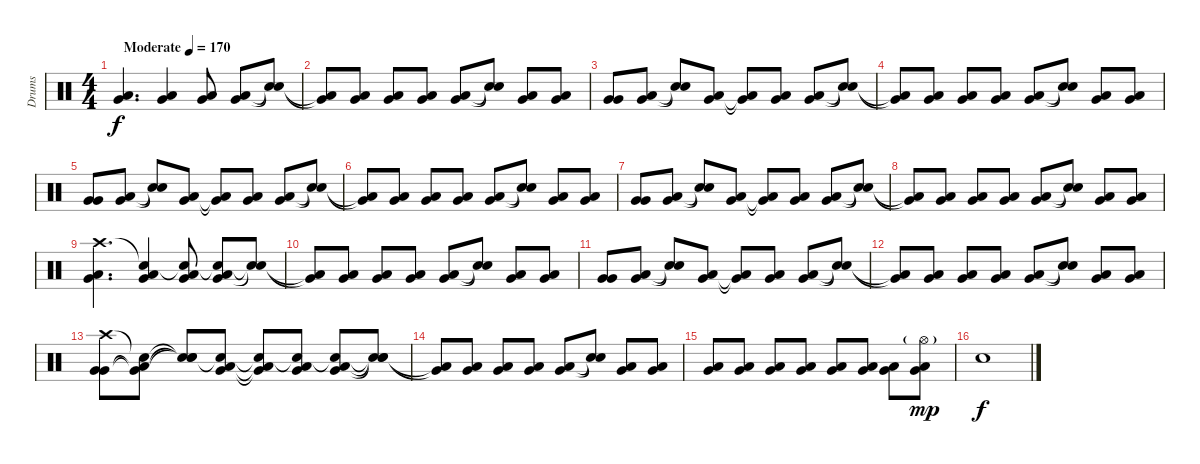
\track ("Drums" "Drums") {instrument percussion}
\staff {score}
\articulation defaults
\ts (4 4)
\tempo (170 "Moderate")
\clef neutral
\ks c
("Very Low Tom (hit)" "Low Floor Tom (hit)").4{d dy f} ("Very Low Tom (hit)" "Low Floor Tom (hit)").4 ("Very Low Tom (hit)" "Low Floor Tom (hit)").8 ("Very Low Tom (hit)" "Low Floor Tom (hit)").8 ("Snare (hit)"{t} "Snare (hit)"{t}).8 |
("Very Low Tom (hit)"{t} "Low Floor Tom (hit)"{t}).8 ("Very Low Tom (hit)" "Low Floor Tom (hit)").8 ("Very Low Tom (hit)" "Low Floor Tom (hit)").8 ("Very Low Tom (hit)" "Low Floor Tom (hit)").8 ("Very Low Tom (hit)" "Low Floor Tom (hit)").8 ("Snare (hit)"{t} "Snare (hit)"{t}).8 ("Very Low Tom (hit)" "Low Floor Tom (hit)").8 ("Very Low Tom (hit)" "Low Floor Tom (hit)").8 |
("Very Low Tom (hit)" "Very Low Tom (hit)").8 ("Very Low Tom (hit)" "Low Floor Tom (hit)").8 ("Snare (hit)"{t} "Snare (hit)"{t}).8 ("Very Low Tom (hit)" "Low Floor Tom (hit)").8 ("Very Low Tom (hit)"{t} "Low Floor Tom (hit)"{t}).8 ("Very Low Tom (hit)" "Low Floor Tom (hit)").8 ("Very Low Tom (hit)" "Low Floor Tom (hit)").8 ("Snare (hit)"{t} "Snare (hit)"{t}).8 |
("Very Low Tom (hit)"{t} "Low Floor Tom (hit)"{t}).8 ("Very Low Tom (hit)" "Low Floor Tom (hit)").8 ("Very Low Tom (hit)" "Low Floor Tom (hit)").8 ("Very Low Tom (hit)" "Low Floor Tom (hit)").8 ("Very Low Tom (hit)" "Low Floor Tom (hit)").8 ("Snare (hit)"{t} "Snare (hit)"{t}).8 ("Very Low Tom (hit)" "Low Floor Tom (hit)").8 ("Very Low Tom (hit)" "Low Floor Tom (hit)").8 |
("Very Low Tom (hit)" "Very Low Tom (hit)").8 ("Very Low Tom (hit)" "Low Floor Tom (hit)").8 ("Snare (hit)"{t} "Snare (hit)"{t}).8 ("Very Low Tom (hit)" "Low Floor Tom (hit)").8 ("Very Low Tom (hit)"{t} "Low Floor Tom (hit)"{t}).8 ("Very Low Tom (hit)" "Low Floor Tom (hit)").8 ("Very Low Tom (hit)" "Low Floor Tom (hit)").8 ("Snare (hit)"{t} "Snare (hit)"{t}).8 |
("Very Low Tom (hit)"{t} "Low Floor Tom (hit)"{t}).8 ("Very Low Tom (hit)" "Low Floor Tom (hit)").8 ("Very Low Tom (hit)" "Low Floor Tom (hit)").8 ("Very Low Tom (hit)" "Low Floor Tom (hit)").8 ("Very Low Tom (hit)" "Low Floor Tom (hit)").8 ("Snare (hit)"{t} "Snare (hit)"{t}).8 ("Very Low Tom (hit)" "Low Floor Tom (hit)").8 ("Very Low Tom (hit)" "Low Floor Tom (hit)").8 |
("Very Low Tom (hit)" "Very Low Tom (hit)").8 ("Very Low Tom (hit)" "Low Floor Tom (hit)").8 ("Snare (hit)"{t} "Snare (hit)"{t}).8 ("Very Low Tom (hit)" "Low Floor Tom (hit)").8 ("Very Low Tom (hit)"{t} "Low Floor Tom (hit)"{t}).8 ("Very Low Tom (hit)" "Low Floor Tom (hit)").8 ("Very Low Tom (hit)" "Low Floor Tom (hit)").8 ("Snare (hit)"{t} "Snare (hit)"{t}).8 |
("Very Low Tom (hit)"{t} "Low Floor Tom (hit)"{t}).8 ("Very Low Tom (hit)" "Low Floor Tom (hit)").8 ("Very Low Tom (hit)" "Low Floor Tom (hit)").8 ("Very Low Tom (hit)" "Low Floor Tom (hit)").8 ("Very Low Tom (hit)" "Low Floor Tom (hit)").8 ("Snare (hit)"{t} "Snare (hit)"{t}).8 ("Very Low Tom (hit)" "Low Floor Tom (hit)").8 ("Very Low Tom (hit)" "Low Floor Tom (hit)").8 |
("Crash high (hit)" "Very Low Tom (hit)" "Low Floor Tom (hit)").4{d} ("Snare (hit)"{t} "Very Low Tom (hit)" "Low Floor Tom (hit)").4 ("Snare (hit)"{t} "Very Low Tom (hit)" "Low Floor Tom (hit)").8 ("Snare (hit)"{t} "Very Low Tom (hit)" "Low Floor Tom (hit)").8 ("Snare (hit)"{t} "Snare (hit)"{t}).8 |
("Very Low Tom (hit)"{t} "Low Floor Tom (hit)"{t}).8 ("Very Low Tom (hit)" "Low Floor Tom (hit)").8 ("Very Low Tom (hit)" "Low Floor Tom (hit)").8 ("Very Low Tom (hit)" "Low Floor Tom (hit)").8 ("Very Low Tom (hit)" "Low Floor Tom (hit)").8 ("Snare (hit)"{t} "Snare (hit)"{t}).8 ("Very Low Tom (hit)" "Low Floor Tom (hit)").8 ("Very Low Tom (hit)" "Low Floor Tom (hit)").8 |
("Very Low Tom (hit)" "Very Low Tom (hit)").8 ("Very Low Tom (hit)" "Low Floor Tom (hit)").8 ("Snare (hit)"{t} "Snare (hit)"{t}).8 ("Very Low Tom (hit)" "Low Floor Tom (hit)").8 ("Very Low Tom (hit)"{t} "Low Floor Tom (hit)"{t}).8 ("Very Low Tom (hit)" "Low Floor Tom (hit)").8 ("Very Low Tom (hit)" "Low Floor Tom (hit)").8 ("Snare (hit)"{t} "Snare (hit)"{t}).8 |
("Very Low Tom (hit)"{t} "Low Floor Tom (hit)"{t}).8 ("Very Low Tom (hit)" "Low Floor Tom (hit)").8 ("Very Low Tom (hit)" "Low Floor Tom (hit)").8 ("Very Low Tom (hit)" "Low Floor Tom (hit)").8 ("Very Low Tom (hit)" "Low Floor Tom (hit)").8 ("Snare (hit)"{t} "Snare (hit)"{t}).8 ("Very Low Tom (hit)" "Low Floor Tom (hit)").8 ("Very Low Tom (hit)" "Low Floor Tom (hit)").8 |
("Crash high (hit)" "Very Low Tom (hit)" "Very Low Tom (hit)").8 ("Snare (hit)"{t} "Very Low Tom (hit)"{t} "Low Floor Tom (hit)"{t}).8 ("Snare (hit)"{t} "Snare (hit)"{t} "Snare (hit)"{t}).8 ("Snare (hit)"{t} "Very Low Tom (hit)" "Low Floor Tom (hit)").8 ("Snare (hit)"{t} "Very Low Tom (hit)"{t} "Low Floor Tom (hit)"{t}).8 ("Snare (hit)"{t} "Very Low Tom (hit)" "Low Floor Tom (hit)").8 ("Snare (hit)"{t} "Very Low Tom (hit)" "Low Floor Tom (hit)").8 ("Snare (hit)"{t} "Snare (hit)"{t} "Snare (hit)"{t}).8 |
("Very Low Tom (hit)"{t} "Low Floor Tom (hit)"{t}).8 ("Very Low Tom (hit)" "Low Floor Tom (hit)").8 ("Very Low Tom (hit)" "Low Floor Tom (hit)").8 ("Very Low Tom (hit)" "Low Floor Tom (hit)").8 ("Very Low Tom (hit)" "Low Floor Tom (hit)").8 ("Snare (hit)"{t} "Snare (hit)"{t}).8 ("Very Low Tom (hit)" "Low Floor Tom (hit)").8 ("Very Low Tom (hit)" "Low Floor Tom (hit)").8 |
("Very Low Tom (hit)" "Low Floor Tom (hit)").8 ("Very Low Tom (hit)" "Low Floor Tom (hit)").8 ("Very Low Tom (hit)" "Low Floor Tom (hit)").8 ("Very Low Tom (hit)" "Low Floor Tom (hit)").8 ("Very Low Tom (hit)" "Low Floor Tom (hit)").8 ("Very Low Tom (hit)" "Low Floor Tom (hit)").8 ("Very Low Tom (hit)" "Low Floor Tom (hit)").8 ("Hi-Hat (open)"{g} "Very Low Tom (hit)" "Low Floor Tom (hit)").8{dy mp} |
"Snare (hit) 2".1{dy f}
